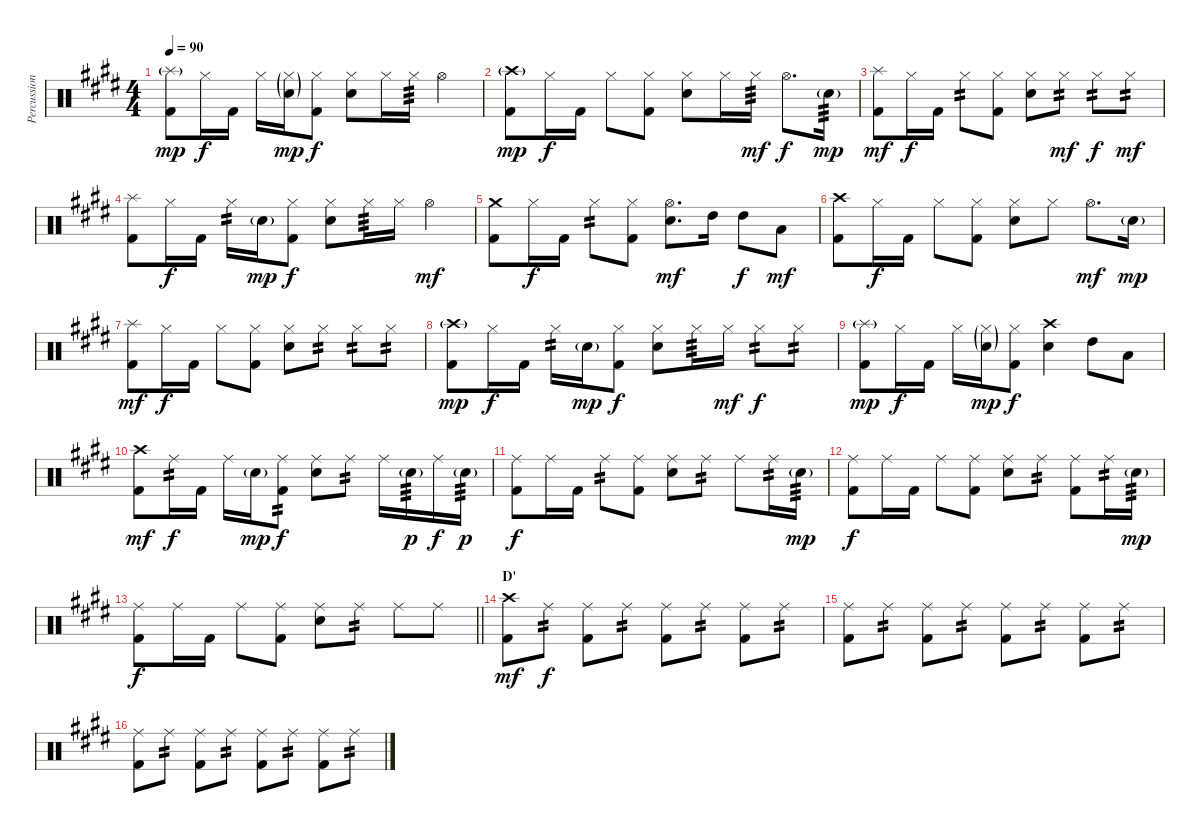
\track ("Percussion" "Percussion") {instrument percussion}
\staff {score}
\articulation defaults
\ts (4 4)
\tempo 90
\clef neutral
\ks c#minor
("Splash (hit)"{g} "Kick (hit) 2").8{dy mp} "Hi-Hat (closed)".16{dy f} "Kick (hit) 2".16 "Hi-Hat (closed)".16 ("Hi-Hat (closed)"{g} "Snare (hit) 2"{g}).16{dy mp} ("Hi-Hat (closed)" "Kick (hit) 2").8{dy f} ("Hi-Hat (closed)" "Snare (hit) 2").8 "Hi-Hat (closed)".16 "Hi-Hat (closed)".16{tp 3} "Hi-Hat (open)".4 |
("Crash high (hit)"{g} "Kick (hit) 2").8{dy mp} "Hi-Hat (closed)".16{dy f} "Kick (hit) 2".16 "Hi-Hat (closed)".8 ("Hi-Hat (closed)" "Kick (hit) 2").8 ("Hi-Hat (closed)" "Snare (hit) 2").8 "Hi-Hat (closed)".16 "Hi-Hat (closed)".16{tp 3 dy mf} "Hi-Hat (open)".8{d dy f} "Snare (hit) 2"{g}.16{tp 3 dy mp} |
("Splash (hit)" "Kick (hit) 2").8{dy mf} "Hi-Hat (closed)".16{dy f} "Kick (hit) 2".16 "Hi-Hat (closed)".8{tp 2} ("Hi-Hat (closed)" "Kick (hit) 2").8 ("Hi-Hat (closed)" "Snare (hit) 2").8 "Hi-Hat (closed)".8{tp 2 dy mf} "Hi-Hat (closed)".8{tp 2 dy f} "Hi-Hat (closed)".8{tp 2 dy mf} |
("Splash (hit)" "Kick (hit) 2").8 "Hi-Hat (closed)".16{dy f} "Kick (hit) 2".16 "Hi-Hat (closed)".16{tp 2} "Snare (hit) 2"{g}.16{dy mp} ("Hi-Hat (closed)" "Kick (hit) 2").8{dy f} ("Hi-Hat (closed)" "Snare (hit) 2").8 "Hi-Hat (closed)".16{tp 3} "Hi-Hat (closed)".16 "Hi-Hat (open)".4{dy mf} |
("Crash medium (hit)" "Kick (hit) 2").8 "Hi-Hat (closed)".16{dy f} "Kick (hit) 2".16 "Hi-Hat (closed)".8{tp 2} ("Hi-Hat (closed)" "Kick (hit) 2").8 ("Hi-Hat (open)" "Snare (hit) 2").8{d dy mf} "High Tom (hit)".16 "High Tom (hit)".8{dy f} "Low Tom (hit)".8{dy mf} |
("Crash high (hit)" "Kick (hit) 2").8 "Hi-Hat (closed)".16{dy f} "Kick (hit) 2".16 "Hi-Hat (closed)".8 ("Hi-Hat (closed)" "Kick (hit) 2").8 ("Hi-Hat (closed)" "Snare (hit) 2").8 "Hi-Hat (closed)".8 "Hi-Hat (open)".8{d dy mf} "Snare (hit) 2"{g}.16{dy mp} |
("Splash (hit)" "Kick (hit) 2").8{dy mf} "Hi-Hat (closed)".16{dy f} "Kick (hit) 2".16 "Hi-Hat (closed)".8 ("Hi-Hat (closed)" "Kick (hit) 2").8 ("Hi-Hat (closed)" "Snare (hit) 2").8 "Hi-Hat (closed)".8{tp 2} "Hi-Hat (closed)".8{tp 2} "Hi-Hat (closed)".8{tp 2} |
("Crash high (hit)"{g} "Kick (hit) 2").8{dy mp} "Hi-Hat (closed)".16{dy f} "Kick (hit) 2".16 "Hi-Hat (closed)".16{tp 2} "Snare (hit) 2"{g}.16{dy mp} ("Hi-Hat (closed)" "Kick (hit) 2").8{dy f} ("Hi-Hat (closed)" "Snare (hit) 2").8 "Hi-Hat (closed)".16{tp 3} "Hi-Hat (closed)".16{dy mf} "Hi-Hat (closed)".8{tp 2 dy f} "Hi-Hat (closed)".8{tp 2} |
("Splash (hit)"{g} "Kick (hit) 2").8{dy mp} "Hi-Hat (closed)".16{dy f} "Kick (hit) 2".16 "Hi-Hat (closed)".16 ("Hi-Hat (closed)"{g} "Snare (hit) 2"{g}).16{dy mp} ("Hi-Hat (closed)" "Kick (hit) 2").8{dy f} ("Crash high (hit)" "Snare (hit) 2").4 "High Tom (hit)".8 "Low Tom (hit)".8 |
("Crash high (hit)" "Kick (hit) 2").8{dy mf} "Ride (middle)".16{tp 2 dy f} "Kick (hit) 2".16 "Ride (middle)".16 "Snare (hit) 2"{g}.16{dy mp} ("Ride (middle)" "Kick (hit) 2").8{tp 2 dy f} ("Ride (middle)" "Snare (hit) 2").8 "Ride (middle)".8{tp 2} "Ride (middle)".16 "Snare (hit) 2"{g}.16{tp 3 dy p} "Ride (middle)".16{dy f} "Snare (hit) 2"{g}.16{tp 3 dy p} |
("Ride (middle)" "Kick (hit) 2").8{dy f} "Ride (middle)".16 "Kick (hit) 2".16 "Ride (middle)".8{tp 2} ("Ride (middle)" "Kick (hit) 2").8 ("Ride (middle)" "Snare (hit) 2").8 "Ride (middle)".8{tp 2} "Ride (middle)".8 "Ride (middle)".16{tp 2} "Snare (hit) 2"{g}.16{tp 3 dy mp} |
("Ride (middle)" "Kick (hit) 2").8{dy f} "Ride (middle)".16 "Kick (hit) 2".16 "Ride (middle)".8 ("Ride (middle)" "Kick (hit) 2").8 ("Ride (middle)" "Snare (hit) 2").8 "Ride (middle)".8{tp 2} ("Ride (middle)" "Kick (hit) 2").8 "Ride (middle)".16{tp 2} "Snare (hit) 2"{g}.16{tp 3 dy mp} |
\barLineRight lightlight
("Ride (middle)" "Kick (hit) 2").8{dy f} "Ride (middle)".16 "Kick (hit) 2".16 "Ride (middle)".8 ("Ride (middle)" "Kick (hit) 2").8 ("Ride (middle)" "Snare (hit) 2").8 "Ride (middle)".8{tp 2} "Ride (middle)".8 "Ride (middle)".8 |
\section ("" "D'")
("Crash high (hit)" "Kick (hit) 2").8{dy mf} "Ride (middle)".8{tp 2 dy f} ("Ride (middle)" "Kick (hit) 2").8 "Ride (middle)".8{tp 2} ("Ride (middle)" "Kick (hit) 2").8 "Ride (middle)".8{tp 2} ("Ride (middle)" "Kick (hit) 2").8 "Ride (middle)".8{tp 2} |
("Ride (middle)" "Kick (hit) 2").8 "Ride (middle)".8{tp 2} ("Ride (middle)" "Kick (hit) 2").8 "Ride (middle)".8{tp 2} ("Ride (middle)" "Kick (hit) 2").8 "Ride (middle)".8{tp 2} ("Ride (middle)" "Kick (hit) 2").8 "Ride (middle)".8{tp 2} |
("Ride (middle)" "Kick (hit) 2").8 "Ride (middle)".8{tp 2} ("Ride (middle)" "Kick (hit) 2").8 "Ride (middle)".8{tp 2} ("Ride (middle)" "Kick (hit) 2").8 "Ride (middle)".8{tp 2} ("Ride (middle)" "Kick (hit) 2").8 "Ride (middle)".8{tp 2}
